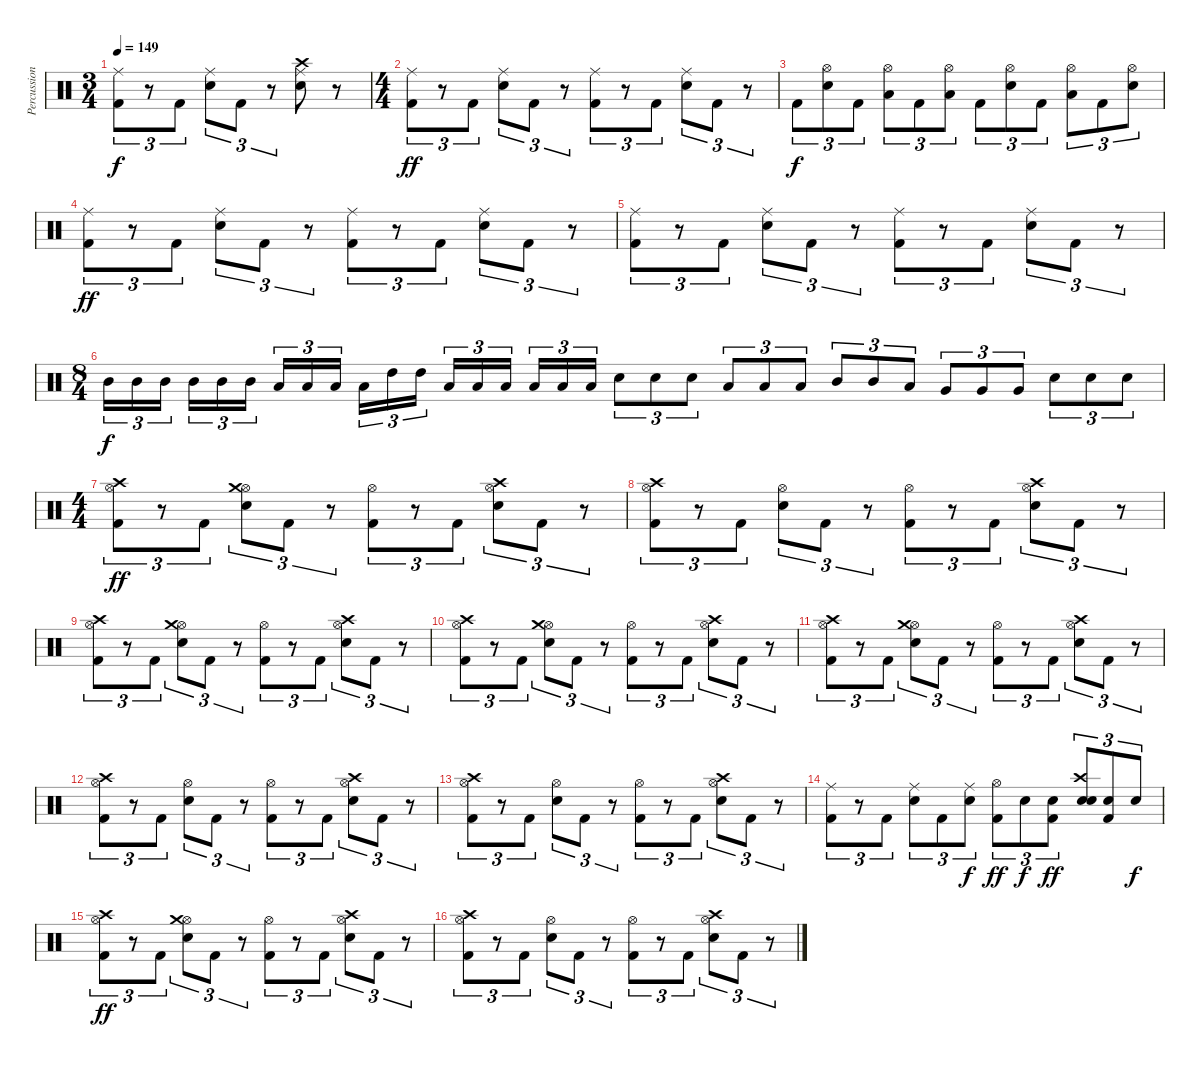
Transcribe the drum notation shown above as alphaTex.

\track ("Percussion" "Percussion") {instrument percussion}
\staff {score}
\articulation defaults
\ts (3 4)
\tempo 149
\clef neutral
\ks c
("Kick (hit) 2" "Ride (middle)").8{tu (3 2) dy f} r.8{tu (3 2)} "Kick (hit) 2".8{tu (3 2)} ("Snare (hit) 2" "Ride (middle)").8{tu (3 2)} "Kick (hit) 2".8{tu (3 2)} r.8{tu (3 2)} ("Crash high (hit)" "Ride (middle)" "Snare (hit) 2").8 r.8 |
\ts (4 4)
("Kick (hit) 2" "Ride (middle)").8{tu (3 2) dy ff} r.8{tu (3 2)} "Kick (hit) 2".8{tu (3 2)} ("Snare (hit) 2" "Ride (middle)").8{tu (3 2)} "Kick (hit) 2".8{tu (3 2)} r.8{tu (3 2)} ("Kick (hit) 2" "Ride (middle)").8{tu (3 2)} r.8{tu (3 2)} "Kick (hit) 2".8{tu (3 2)} ("Snare (hit) 2" "Ride (middle)").8{tu (3 2)} "Kick (hit) 2".8{tu (3 2)} r.8{tu (3 2)} |
"Kick (hit) 2".8{tu (3 2) dy f} ("Snare (hit) 2" "Hi-Hat (open)").8{tu (3 2)} "Kick (hit) 2".8{tu (3 2)} ("Low Tom (hit)" "Hi-Hat (open)").8{tu (3 2)} "Kick (hit) 2".8{tu (3 2)} ("Low Tom (hit)" "Hi-Hat (open)").8{tu (3 2)} "Kick (hit) 2".8{tu (3 2)} ("Snare (hit) 2" "Hi-Hat (open)").8{tu (3 2)} "Kick (hit) 2".8{tu (3 2)} ("Low Tom (hit)" "Hi-Hat (open)").8{tu (3 2)} "Kick (hit) 2".8{tu (3 2)} ("Snare (hit) 2" "Hi-Hat (open)").8{tu (3 2)} |
("Kick (hit) 2" "Ride (middle)").8{tu (3 2) dy ff} r.8{tu (3 2)} "Kick (hit) 2".8{tu (3 2)} ("Snare (hit) 2" "Ride (middle)").8{tu (3 2)} "Kick (hit) 2".8{tu (3 2)} r.8{tu (3 2)} ("Kick (hit) 2" "Ride (middle)").8{tu (3 2)} r.8{tu (3 2)} "Kick (hit) 2".8{tu (3 2)} ("Snare (hit) 2" "Ride (middle)").8{tu (3 2)} "Kick (hit) 2".8{tu (3 2)} r.8{tu (3 2)} |
("Kick (hit) 2" "Ride (middle)").8{tu (3 2)} r.8{tu (3 2)} "Kick (hit) 2".8{tu (3 2)} ("Snare (hit) 2" "Ride (middle)").8{tu (3 2)} "Kick (hit) 2".8{tu (3 2)} r.8{tu (3 2)} ("Kick (hit) 2" "Ride (middle)").8{tu (3 2)} r.8{tu (3 2)} "Kick (hit) 2".8{tu (3 2)} ("Snare (hit) 2" "Ride (middle)").8{tu (3 2)} "Kick (hit) 2".8{tu (3 2)} r.8{tu (3 2)} |
\ts (8 4)
"Mid Tom (hit)".16{tu (3 2) dy f} "Mid Tom (hit)".16{tu (3 2)} "Mid Tom (hit)".16{tu (3 2) beam splitsecondary} "Mid Tom (hit)".16{tu (3 2)} "Mid Tom (hit)".16{tu (3 2)} "Mid Tom (hit)".16{tu (3 2)} "Low Tom (hit)".16{tu (3 2)} "Low Tom (hit)".16{tu (3 2)} "Low Tom (hit)".16{tu (3 2) beam splitsecondary} "Low Tom (hit)".16{tu (3 2)} "High Tom (hit)".16{tu (3 2)} "High Tom (hit)".16{tu (3 2)} "Low Tom (hit)".16{tu (3 2)} "Low Tom (hit)".16{tu (3 2)} "Low Tom (hit)".16{tu (3 2) beam splitsecondary} "Low Tom (hit)".16{tu (3 2)} "Low Tom (hit)".16{tu (3 2)} "Low Floor Tom (hit)".16{tu (3 2)} "Electric Snare (hit)".8{tu (3 2)} "Electric Snare (hit)".8{tu (3 2)} "Electric Snare (hit)".8{tu (3 2)} "Low Tom (hit)".8{tu (3 2)} "Low Tom (hit)".8{tu (3 2)} "Low Tom (hit)".8{tu (3 2)} "Mid Tom (hit)".8{tu (3 2)} "Mid Tom (hit)".8{tu (3 2)} "Low Tom (hit)".8{tu (3 2)} "Very Low Tom (hit)".8{tu (3 2)} "Very Low Tom (hit)".8{tu (3 2)} "Very Low Tom (hit)".8{tu (3 2)} "Electric Snare (hit)".8{tu (3 2)} "Electric Snare (hit)".8{tu (3 2)} "Electric Snare (hit)".8{tu (3 2)} |
\ts (4 4)
("Kick (hit) 2" "Hi-Hat (open)" "Crash high (hit)").8{tu (3 2) dy ff} r.8{tu (3 2)} "Kick (hit) 2".8{tu (3 2)} ("Electric Snare (hit)" "Hi-Hat (open)" "Crash medium (hit)").8{tu (3 2)} "Kick (hit) 2".8{tu (3 2)} r.8{tu (3 2)} ("Kick (hit) 2" "Hi-Hat (open)").8{tu (3 2)} r.8{tu (3 2)} "Kick (hit) 2".8{tu (3 2)} ("Electric Snare (hit)" "Hi-Hat (open)" "Crash high (hit)").8{tu (3 2)} "Kick (hit) 2".8{tu (3 2)} r.8{tu (3 2)} |
("Kick (hit) 2" "Hi-Hat (open)" "Crash high (hit)").8{tu (3 2)} r.8{tu (3 2)} "Kick (hit) 2".8{tu (3 2)} ("Electric Snare (hit)" "Hi-Hat (open)").8{tu (3 2)} "Kick (hit) 2".8{tu (3 2)} r.8{tu (3 2)} ("Kick (hit) 2" "Hi-Hat (open)").8{tu (3 2)} r.8{tu (3 2)} "Kick (hit) 2".8{tu (3 2)} ("Electric Snare (hit)" "Hi-Hat (open)" "Crash high (hit)").8{tu (3 2)} "Kick (hit) 2".8{tu (3 2)} r.8{tu (3 2)} |
("Kick (hit) 2" "Hi-Hat (open)" "Crash high (hit)").8{tu (3 2)} r.8{tu (3 2)} "Kick (hit) 2".8{tu (3 2)} ("Electric Snare (hit)" "Hi-Hat (open)" "Crash medium (hit)").8{tu (3 2)} "Kick (hit) 2".8{tu (3 2)} r.8{tu (3 2)} ("Kick (hit) 2" "Hi-Hat (open)").8{tu (3 2)} r.8{tu (3 2)} "Kick (hit) 2".8{tu (3 2)} ("Electric Snare (hit)" "Hi-Hat (open)" "Crash high (hit)").8{tu (3 2)} "Kick (hit) 2".8{tu (3 2)} r.8{tu (3 2)} |
("Kick (hit) 2" "Hi-Hat (open)" "Crash high (hit)").8{tu (3 2)} r.8{tu (3 2)} "Kick (hit) 2".8{tu (3 2)} ("Electric Snare (hit)" "Hi-Hat (open)" "Crash medium (hit)").8{tu (3 2)} "Kick (hit) 2".8{tu (3 2)} r.8{tu (3 2)} ("Kick (hit) 2" "Hi-Hat (open)").8{tu (3 2)} r.8{tu (3 2)} "Kick (hit) 2".8{tu (3 2)} ("Electric Snare (hit)" "Hi-Hat (open)" "Crash high (hit)").8{tu (3 2)} "Kick (hit) 2".8{tu (3 2)} r.8{tu (3 2)} |
("Kick (hit) 2" "Hi-Hat (open)" "Crash high (hit)").8{tu (3 2)} r.8{tu (3 2)} "Kick (hit) 2".8{tu (3 2)} ("Electric Snare (hit)" "Hi-Hat (open)" "Crash medium (hit)").8{tu (3 2)} "Kick (hit) 2".8{tu (3 2)} r.8{tu (3 2)} ("Kick (hit) 2" "Hi-Hat (open)").8{tu (3 2)} r.8{tu (3 2)} "Kick (hit) 2".8{tu (3 2)} ("Electric Snare (hit)" "Hi-Hat (open)" "Crash high (hit)").8{tu (3 2)} "Kick (hit) 2".8{tu (3 2)} r.8{tu (3 2)} |
("Kick (hit) 2" "Hi-Hat (open)" "Crash high (hit)").8{tu (3 2)} r.8{tu (3 2)} "Kick (hit) 2".8{tu (3 2)} ("Electric Snare (hit)" "Hi-Hat (open)").8{tu (3 2)} "Kick (hit) 2".8{tu (3 2)} r.8{tu (3 2)} ("Kick (hit) 2" "Hi-Hat (open)").8{tu (3 2)} r.8{tu (3 2)} "Kick (hit) 2".8{tu (3 2)} ("Electric Snare (hit)" "Hi-Hat (open)" "Crash high (hit)").8{tu (3 2)} "Kick (hit) 2".8{tu (3 2)} r.8{tu (3 2)} |
("Kick (hit) 2" "Hi-Hat (open)" "Crash high (hit)").8{tu (3 2)} r.8{tu (3 2)} "Kick (hit) 2".8{tu (3 2)} ("Electric Snare (hit)" "Hi-Hat (open)").8{tu (3 2)} "Kick (hit) 2".8{tu (3 2)} r.8{tu (3 2)} ("Kick (hit) 2" "Hi-Hat (open)").8{tu (3 2)} r.8{tu (3 2)} "Kick (hit) 2".8{tu (3 2)} ("Electric Snare (hit)" "Hi-Hat (open)" "Crash high (hit)").8{tu (3 2)} "Kick (hit) 2".8{tu (3 2)} r.8{tu (3 2)} |
("Kick (hit) 2" "Ride (middle)").8{tu (3 2)} r.8{tu (3 2)} "Kick (hit) 2".8{tu (3 2)} ("Electric Snare (hit)" "Ride (middle)").8{tu (3 2)} "Kick (hit) 2".8{tu (3 2)} ("Electric Snare (hit)" "Ride (middle)").8{tu (3 2) dy f} ("Kick (hit) 2" "Hi-Hat (open)").8{tu (3 2) dy ff} "Electric Snare (hit)".8{tu (3 2) dy f} ("Kick (hit) 2" "Electric Snare (hit)").8{tu (3 2) dy ff} ("Snare (hit) 2" "Electric Snare (hit)" "Crash high (hit)").8{tu (3 2)} ("Kick (hit) 2" "Electric Snare (hit)").8{tu (3 2)} "Electric Snare (hit)".8{tu (3 2) dy f} |
("Kick (hit) 2" "Hi-Hat (open)" "Crash high (hit)").8{tu (3 2) dy ff} r.8{tu (3 2)} "Kick (hit) 2".8{tu (3 2)} ("Electric Snare (hit)" "Hi-Hat (open)" "Crash medium (hit)").8{tu (3 2)} "Kick (hit) 2".8{tu (3 2)} r.8{tu (3 2)} ("Kick (hit) 2" "Hi-Hat (open)").8{tu (3 2)} r.8{tu (3 2)} "Kick (hit) 2".8{tu (3 2)} ("Electric Snare (hit)" "Hi-Hat (open)" "Crash high (hit)").8{tu (3 2)} "Kick (hit) 2".8{tu (3 2)} r.8{tu (3 2)} |
("Kick (hit) 2" "Hi-Hat (open)" "Crash high (hit)").8{tu (3 2)} r.8{tu (3 2)} "Kick (hit) 2".8{tu (3 2)} ("Electric Snare (hit)" "Hi-Hat (open)").8{tu (3 2)} "Kick (hit) 2".8{tu (3 2)} r.8{tu (3 2)} ("Kick (hit) 2" "Hi-Hat (open)").8{tu (3 2)} r.8{tu (3 2)} "Kick (hit) 2".8{tu (3 2)} ("Electric Snare (hit)" "Hi-Hat (open)" "Crash high (hit)").8{tu (3 2)} "Kick (hit) 2".8{tu (3 2)} r.8{tu (3 2)}
